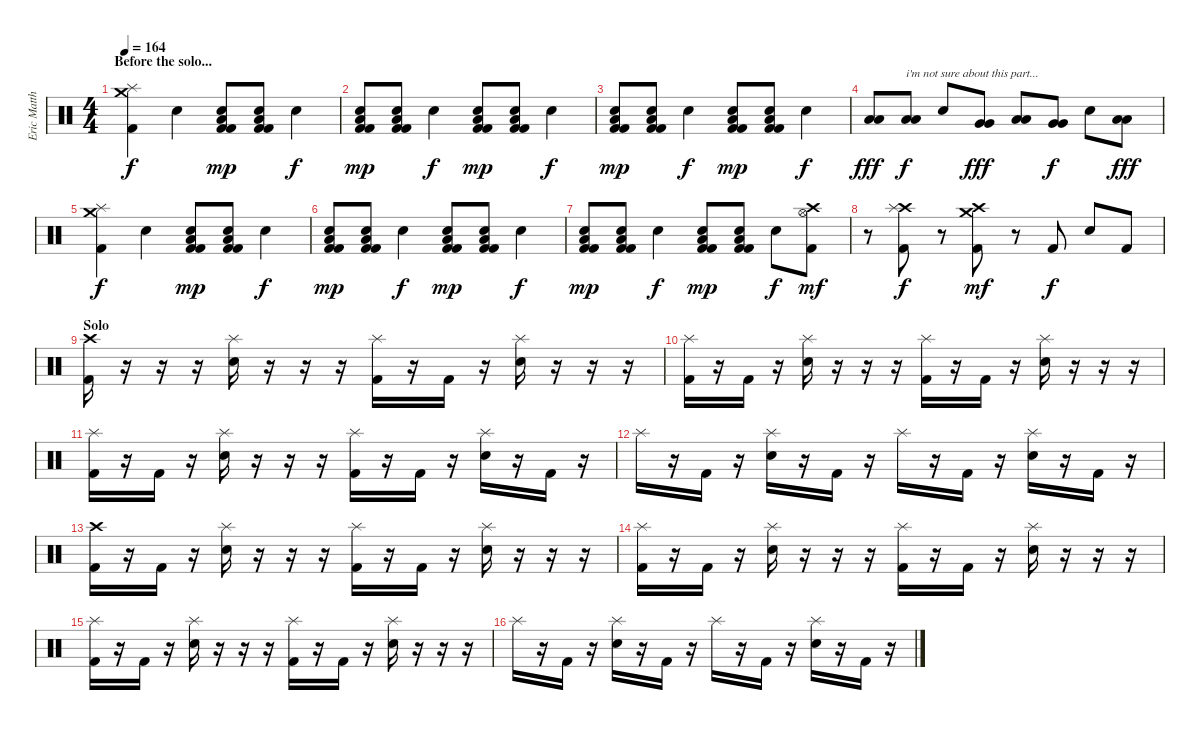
\track ("Eric Matthews (drums)" "Eric Matth") {instrument percussion}
\staff {score}
\articulation defaults
\ts (4 4)
\section ("" "Before the solo...")
\tempo 164
\clef neutral
\ks c
("Crash medium (hit)" "Splash (hit)" "Kick (hit) 2").4{dy f} "Snare (hit) 2".4 ("Kick (hit) 2" "Low Floor Tom (hit)" "Snare (hit) 2" "Kick (hit) 2").8{dy mp} ("Kick (hit) 2" "Low Floor Tom (hit)" "Snare (hit) 2" "Kick (hit) 2").8 "Snare (hit) 2".4{dy f} |
("Kick (hit) 2" "Low Floor Tom (hit)" "Snare (hit) 2" "Kick (hit) 2").8{dy mp} ("Kick (hit) 2" "Low Floor Tom (hit)" "Snare (hit) 2" "Kick (hit) 2").8 "Snare (hit) 2".4{dy f} ("Kick (hit) 2" "Low Floor Tom (hit)" "Snare (hit) 2" "Kick (hit) 2").8{dy mp} ("Kick (hit) 2" "Low Floor Tom (hit)" "Snare (hit) 2" "Kick (hit) 2").8 "Snare (hit) 2".4{dy f} |
("Kick (hit) 2" "Low Floor Tom (hit)" "Snare (hit) 2" "Kick (hit) 2").8{dy mp} ("Kick (hit) 2" "Low Floor Tom (hit)" "Snare (hit) 2" "Kick (hit) 2").8 "Snare (hit) 2".4{dy f} ("Kick (hit) 2" "Low Floor Tom (hit)" "Snare (hit) 2" "Kick (hit) 2").8{dy mp} ("Kick (hit) 2" "Low Floor Tom (hit)" "Snare (hit) 2" "Kick (hit) 2").8 "Snare (hit) 2".4{dy f} |
("Low Tom (hit)" "Low Tom (hit)").8{dy fff} ("Low Floor Tom (hit)" "Low Floor Tom (hit)").8{txt "i'm not sure about this part..." dy f} "Snare (hit) 2".8 ("Very Low Tom (hit)" "Very Low Tom (hit)").8{dy fff} ("Low Floor Tom (hit)" "Low Floor Tom (hit)").8 ("Very Low Tom (hit)" "Very Low Tom (hit)").8{dy f} "Snare (hit) 2".8 ("Low Floor Tom (hit)" "Low Floor Tom (hit)").8{dy fff} |
("Crash medium (hit)" "Splash (hit)" "Kick (hit) 2").4{dy f} "Snare (hit) 2".4 ("Kick (hit) 2" "Low Floor Tom (hit)" "Snare (hit) 2" "Kick (hit) 2").8{dy mp} ("Kick (hit) 2" "Low Floor Tom (hit)" "Snare (hit) 2" "Kick (hit) 2").8 "Snare (hit) 2".4{dy f} |
("Kick (hit) 2" "Low Floor Tom (hit)" "Snare (hit) 2" "Kick (hit) 2").8{dy mp} ("Kick (hit) 2" "Low Floor Tom (hit)" "Snare (hit) 2" "Kick (hit) 2").8 "Snare (hit) 2".4{dy f} ("Kick (hit) 2" "Low Floor Tom (hit)" "Snare (hit) 2" "Kick (hit) 2").8{dy mp} ("Kick (hit) 2" "Low Floor Tom (hit)" "Snare (hit) 2" "Kick (hit) 2").8 "Snare (hit) 2".4{dy f} |
("Kick (hit) 2" "Low Floor Tom (hit)" "Snare (hit) 2" "Kick (hit) 2").8{dy mp} ("Kick (hit) 2" "Low Floor Tom (hit)" "Snare (hit) 2" "Kick (hit) 2").8 "Snare (hit) 2".4{dy f} ("Kick (hit) 2" "Low Floor Tom (hit)" "Snare (hit) 2" "Kick (hit) 2").8{dy mp} ("Kick (hit) 2" "Low Floor Tom (hit)" "Snare (hit) 2" "Kick (hit) 2").8 "Snare (hit) 2".8{dy f} ("Crash high (hit)" "Hi-Hat (open)" "Kick (hit) 2").8{dy mf} |
r.8 ("Crash high (hit)" "Splash (hit)" "Kick (hit) 2").8{dy f} r.8 ("Crash high (hit)" "Crash medium (hit)" "Kick (hit) 2").8{dy mf} r.8 "Kick (hit) 2".8{dy f} "Snare (hit) 2".8 "Kick (hit) 2".8 |
\section ("" "Solo")
("Crash high (hit)" "Kick (hit) 2").16{volume 13} r.16 r.16 r.16 ("Splash (hit)" "Snare (hit) 2").16 r.16 r.16 r.16 ("Splash (hit)" "Kick (hit) 2").16 r.16 "Kick (hit) 2".16 r.16 ("Splash (hit)" "Snare (hit) 2").16 r.16 r.16 r.16 |
("Splash (hit)" "Kick (hit) 2").16 r.16 "Kick (hit) 2".16 r.16 ("Splash (hit)" "Snare (hit) 2").16 r.16 r.16 r.16 ("Splash (hit)" "Kick (hit) 2").16 r.16 "Kick (hit) 2".16 r.16 ("Splash (hit)" "Snare (hit) 2").16 r.16 r.16 r.16 |
("Splash (hit)" "Kick (hit) 2").16 r.16 "Kick (hit) 2".16 r.16 ("Splash (hit)" "Snare (hit) 2").16 r.16 r.16 r.16 ("Splash (hit)" "Kick (hit) 2").16 r.16 "Kick (hit) 2".16 r.16 ("Splash (hit)" "Snare (hit) 2").16 r.16 "Kick (hit) 2".16 r.16 |
"Splash (hit)".16 r.16 "Kick (hit) 2".16 r.16 ("Splash (hit)" "Snare (hit) 2").16 r.16 "Kick (hit) 2".16 r.16 "Splash (hit)".16 r.16 "Kick (hit) 2".16 r.16 ("Splash (hit)" "Snare (hit) 2").16 r.16 "Kick (hit) 2".16 r.16 |
("Crash high (hit)" "Kick (hit) 2").16 r.16 "Kick (hit) 2".16 r.16 ("Splash (hit)" "Snare (hit) 2").16 r.16 r.16 r.16 ("Splash (hit)" "Kick (hit) 2").16 r.16 "Kick (hit) 2".16 r.16 ("Splash (hit)" "Snare (hit) 2").16 r.16 r.16 r.16 |
("Splash (hit)" "Kick (hit) 2").16 r.16 "Kick (hit) 2".16 r.16 ("Splash (hit)" "Snare (hit) 2").16 r.16 r.16 r.16 ("Splash (hit)" "Kick (hit) 2").16 r.16 "Kick (hit) 2".16 r.16 ("Splash (hit)" "Snare (hit) 2").16 r.16 r.16 r.16 |
("Splash (hit)" "Kick (hit) 2").16 r.16 "Kick (hit) 2".16 r.16 ("Splash (hit)" "Snare (hit) 2").16 r.16 r.16 r.16 ("Splash (hit)" "Kick (hit) 2").16 r.16 "Kick (hit) 2".16 r.16 ("Splash (hit)" "Snare (hit) 2").16 r.16 r.16 r.16 |
"Splash (hit)".16 r.16 "Kick (hit) 2".16 r.16 ("Splash (hit)" "Snare (hit) 2").16 r.16 "Kick (hit) 2".16 r.16 "Splash (hit)".16 r.16 "Kick (hit) 2".16 r.16 ("Splash (hit)" "Snare (hit) 2").16 r.16 "Kick (hit) 2".16 r.16
